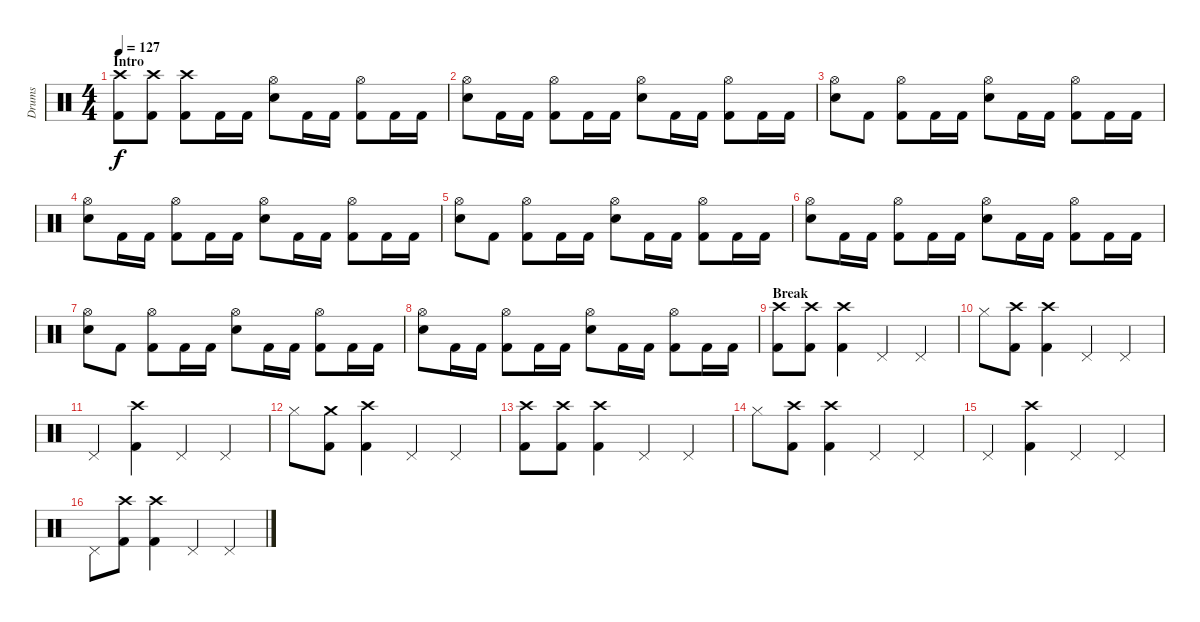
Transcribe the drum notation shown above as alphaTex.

\track ("Drums" "Drums") {instrument percussion}
\staff {score}
\articulation defaults
\ts (4 4)
\section ("" "Intro")
\tempo 127
\clef neutral
\ks c
("Crash high (hit)" "Kick (hit) 2").8{dy f} ("Crash high (hit)" "Kick (hit) 2").8 ("Crash high (hit)" "Kick (hit) 2").8 "Kick (hit) 2".16 "Kick (hit) 2".16 ("Hi-Hat (open)" "Snare (hit) 2").8 "Kick (hit) 2".16 "Kick (hit) 2".16 ("Hi-Hat (open)" "Kick (hit) 2").8 "Kick (hit) 2".16 "Kick (hit) 2".16 |
("Hi-Hat (open)" "Snare (hit) 2").8 "Kick (hit) 2".16 "Kick (hit) 2".16 ("Hi-Hat (open)" "Kick (hit) 2").8 "Kick (hit) 2".16 "Kick (hit) 2".16 ("Hi-Hat (open)" "Snare (hit) 2").8 "Kick (hit) 2".16 "Kick (hit) 2".16 ("Hi-Hat (open)" "Kick (hit) 2").8 "Kick (hit) 2".16 "Kick (hit) 2".16 |
("Hi-Hat (open)" "Snare (hit) 2").8 "Kick (hit) 2".8 ("Hi-Hat (open)" "Kick (hit) 2").8 "Kick (hit) 2".16 "Kick (hit) 2".16 ("Hi-Hat (open)" "Snare (hit) 2").8 "Kick (hit) 2".16 "Kick (hit) 2".16 ("Hi-Hat (open)" "Kick (hit) 2").8 "Kick (hit) 2".16 "Kick (hit) 2".16 |
("Hi-Hat (open)" "Snare (hit) 2").8 "Kick (hit) 2".16 "Kick (hit) 2".16 ("Hi-Hat (open)" "Kick (hit) 2").8 "Kick (hit) 2".16 "Kick (hit) 2".16 ("Hi-Hat (open)" "Snare (hit) 2").8 "Kick (hit) 2".16 "Kick (hit) 2".16 ("Hi-Hat (open)" "Kick (hit) 2").8 "Kick (hit) 2".16 "Kick (hit) 2".16 |
("Hi-Hat (open)" "Snare (hit) 2").8 "Kick (hit) 2".8 ("Hi-Hat (open)" "Kick (hit) 2").8 "Kick (hit) 2".16 "Kick (hit) 2".16 ("Hi-Hat (open)" "Snare (hit) 2").8 "Kick (hit) 2".16 "Kick (hit) 2".16 ("Hi-Hat (open)" "Kick (hit) 2").8 "Kick (hit) 2".16 "Kick (hit) 2".16 |
("Hi-Hat (open)" "Snare (hit) 2").8 "Kick (hit) 2".16 "Kick (hit) 2".16 ("Hi-Hat (open)" "Kick (hit) 2").8 "Kick (hit) 2".16 "Kick (hit) 2".16 ("Hi-Hat (open)" "Snare (hit) 2").8 "Kick (hit) 2".16 "Kick (hit) 2".16 ("Hi-Hat (open)" "Kick (hit) 2").8 "Kick (hit) 2".16 "Kick (hit) 2".16 |
("Hi-Hat (open)" "Snare (hit) 2").8 "Kick (hit) 2".8 ("Hi-Hat (open)" "Kick (hit) 2").8 "Kick (hit) 2".16 "Kick (hit) 2".16 ("Hi-Hat (open)" "Snare (hit) 2").8 "Kick (hit) 2".16 "Kick (hit) 2".16 ("Hi-Hat (open)" "Kick (hit) 2").8 "Kick (hit) 2".16 "Kick (hit) 2".16 |
("Hi-Hat (open)" "Snare (hit) 2").8 "Kick (hit) 2".16 "Kick (hit) 2".16 ("Hi-Hat (open)" "Kick (hit) 2").8 "Kick (hit) 2".16 "Kick (hit) 2".16 ("Hi-Hat (open)" "Snare (hit) 2").8 "Kick (hit) 2".16 "Kick (hit) 2".16 ("Hi-Hat (open)" "Kick (hit) 2").8 "Kick (hit) 2".16 "Kick (hit) 2".16 |
\section ("" "Break")
("Crash high (hit)" "Kick (hit) 2").8 ("Crash high (hit)" "Kick (hit) 2").8 ("Crash high (hit)" "Kick (hit) 2").4 "Pedal Hi-Hat (hit)".4 "Pedal Hi-Hat (hit)".4 |
"Hi-Hat (closed)".8 ("Crash high (hit)" "Kick (hit) 2").8 ("Crash high (hit)" "Kick (hit) 2").4 "Pedal Hi-Hat (hit)".4 "Pedal Hi-Hat (hit)".4 |
"Pedal Hi-Hat (hit)".4 ("Crash high (hit)" "Kick (hit) 2").4 "Pedal Hi-Hat (hit)".4 "Pedal Hi-Hat (hit)".4 |
"Hi-Hat (closed)".8 ("Crash medium (hit)" "Kick (hit) 2").8 ("Crash high (hit)" "Kick (hit) 2").4 "Pedal Hi-Hat (hit)".4 "Pedal Hi-Hat (hit)".4 |
("Crash high (hit)" "Kick (hit) 2").8 ("Crash high (hit)" "Kick (hit) 2").8 ("Crash high (hit)" "Kick (hit) 2").4 "Pedal Hi-Hat (hit)".4 "Pedal Hi-Hat (hit)".4 |
"Hi-Hat (closed)".8 ("Crash high (hit)" "Kick (hit) 2").8 ("Crash high (hit)" "Kick (hit) 2").4 "Pedal Hi-Hat (hit)".4 "Pedal Hi-Hat (hit)".4 |
"Pedal Hi-Hat (hit)".4 ("Crash high (hit)" "Kick (hit) 2").4 "Pedal Hi-Hat (hit)".4 "Pedal Hi-Hat (hit)".4 |
"Pedal Hi-Hat (hit)".8 ("Crash high (hit)" "Kick (hit) 2").8 ("Crash high (hit)" "Kick (hit) 2").4 "Pedal Hi-Hat (hit)".4 "Pedal Hi-Hat (hit)".4
